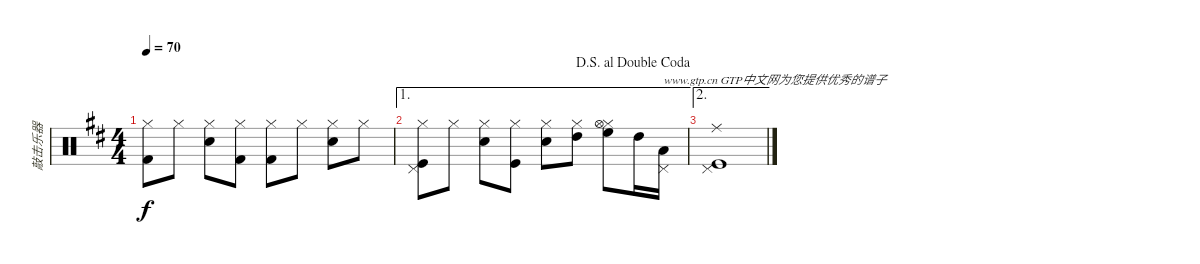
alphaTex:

\track ("敲击乐器" "敲击乐器") {instrument percussion}
\staff {score}
\articulation defaults
\ts (4 4)
\tempo 70
\clef neutral
\ks d
("Hi-Hat (closed)" "Kick (hit) 2").8{dy f} "Hi-Hat (closed)".8 ("Electric Snare (hit)" "Hi-Hat (closed)").8 ("Hi-Hat (closed)" "Kick (hit) 2").8 ("Kick (hit) 2" "Hi-Hat (closed)").8 "Hi-Hat (closed)".8 ("Electric Snare (hit)" "Hi-Hat (closed)").8 "Hi-Hat (closed)".8 |
\ae 1
\jump dalsegnoaldoublecoda
("Kick (hit)" "Pedal Hi-Hat (hit)" "Hi-Hat (closed)").8 "Hi-Hat (closed)".8 ("Electric Snare (hit)" "Hi-Hat (closed)").8 ("Kick (hit)" "Hi-Hat (closed)").8 ("Hi-Hat (closed)" "Electric Snare (hit)").8 ("Hi-Hat (closed)" "High Tom (hit)").8 ("Hi-Hat (closed)" "Hi-Hat (open)" "High Floor Tom (hit)").8 "High Tom (hit)".16 ("Low Tom (hit)" "Pedal Hi-Hat (hit)").16{txt "www.gtp.cn GTP中文网为您提供优秀的谱子"} |
\ae 2
("Kick (hit)" "Pedal Hi-Hat (hit)" "Ride (middle)").1
